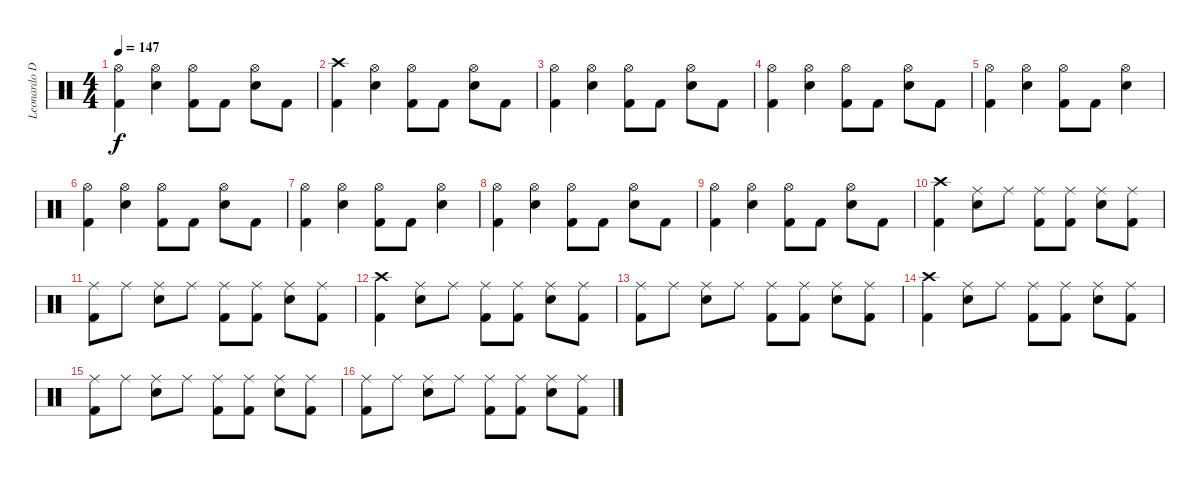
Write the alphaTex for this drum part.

\track ("Leonardo De Cecco" "Leonardo D") {instrument percussion}
\staff {score}
\articulation defaults
\ts (4 4)
\tempo 147
\clef neutral
\ks c
("Hi-Hat (open)" "Kick (hit) 2").4{dy f} ("Hi-Hat (open)" "Electric Snare (hit)").4 ("Hi-Hat (open)" "Kick (hit) 2").8 "Kick (hit) 2".8 ("Hi-Hat (open)" "Electric Snare (hit)").8 "Kick (hit) 2".8 |
("Crash high (hit)" "Kick (hit) 2").4 ("Hi-Hat (open)" "Electric Snare (hit)").4 ("Hi-Hat (open)" "Kick (hit) 2").8 "Kick (hit) 2".8 ("Hi-Hat (open)" "Electric Snare (hit)").8 "Kick (hit) 2".8 |
("Hi-Hat (open)" "Kick (hit) 2").4 ("Hi-Hat (open)" "Electric Snare (hit)").4 ("Hi-Hat (open)" "Kick (hit) 2").8 "Kick (hit) 2".8 ("Hi-Hat (open)" "Electric Snare (hit)").8 "Kick (hit) 2".8 |
("Hi-Hat (open)" "Kick (hit) 2").4 ("Hi-Hat (open)" "Electric Snare (hit)").4 ("Hi-Hat (open)" "Kick (hit) 2").8 "Kick (hit) 2".8 ("Hi-Hat (open)" "Electric Snare (hit)").8 "Kick (hit) 2".8 |
("Hi-Hat (open)" "Kick (hit) 2").4 ("Hi-Hat (open)" "Electric Snare (hit)").4 ("Hi-Hat (open)" "Kick (hit) 2").8 "Kick (hit) 2".8 ("Hi-Hat (open)" "Electric Snare (hit)").4 |
("Hi-Hat (open)" "Kick (hit) 2").4 ("Hi-Hat (open)" "Electric Snare (hit)").4 ("Hi-Hat (open)" "Kick (hit) 2").8 "Kick (hit) 2".8 ("Hi-Hat (open)" "Electric Snare (hit)").8 "Kick (hit) 2".8 |
("Hi-Hat (open)" "Kick (hit) 2").4 ("Hi-Hat (open)" "Electric Snare (hit)").4 ("Hi-Hat (open)" "Kick (hit) 2").8 "Kick (hit) 2".8 ("Hi-Hat (open)" "Electric Snare (hit)").4 |
("Hi-Hat (open)" "Kick (hit) 2").4 ("Hi-Hat (open)" "Electric Snare (hit)").4 ("Hi-Hat (open)" "Kick (hit) 2").8 "Kick (hit) 2".8 ("Hi-Hat (open)" "Electric Snare (hit)").8 "Kick (hit) 2".8 |
("Hi-Hat (open)" "Kick (hit) 2").4 ("Hi-Hat (open)" "Electric Snare (hit)").4 ("Hi-Hat (open)" "Kick (hit) 2").8 "Kick (hit) 2".8 ("Hi-Hat (open)" "Electric Snare (hit)").8 "Kick (hit) 2".8 |
("Crash high (hit)" "Kick (hit) 2").4 ("Ride (middle)" "Electric Snare (hit)").8 "Ride (middle)".8 ("Ride (middle)" "Kick (hit) 2").8 ("Ride (middle)" "Kick (hit) 2").8 ("Ride (middle)" "Electric Snare (hit)").8 ("Ride (middle)" "Kick (hit) 2").8 |
("Ride (middle)" "Kick (hit) 2").8 "Ride (middle)".8 ("Ride (middle)" "Electric Snare (hit)").8 "Ride (middle)".8 ("Ride (middle)" "Kick (hit) 2").8 ("Ride (middle)" "Kick (hit) 2").8 ("Ride (middle)" "Electric Snare (hit)").8 ("Ride (middle)" "Kick (hit) 2").8 |
("Crash high (hit)" "Kick (hit) 2").4 ("Ride (middle)" "Electric Snare (hit)").8 "Ride (middle)".8 ("Ride (middle)" "Kick (hit) 2").8 ("Ride (middle)" "Kick (hit) 2").8 ("Ride (middle)" "Electric Snare (hit)").8 ("Ride (middle)" "Kick (hit) 2").8 |
("Ride (middle)" "Kick (hit) 2").8 "Ride (middle)".8 ("Ride (middle)" "Electric Snare (hit)").8 "Ride (middle)".8 ("Ride (middle)" "Kick (hit) 2").8 ("Ride (middle)" "Kick (hit) 2").8 ("Ride (middle)" "Electric Snare (hit)").8 ("Ride (middle)" "Kick (hit) 2").8 |
("Crash high (hit)" "Kick (hit) 2").4 ("Ride (middle)" "Electric Snare (hit)").8 "Ride (middle)".8 ("Ride (middle)" "Kick (hit) 2").8 ("Ride (middle)" "Kick (hit) 2").8 ("Ride (middle)" "Electric Snare (hit)").8 ("Ride (middle)" "Kick (hit) 2").8 |
("Ride (middle)" "Kick (hit) 2").8 "Ride (middle)".8 ("Ride (middle)" "Electric Snare (hit)").8 "Ride (middle)".8 ("Ride (middle)" "Kick (hit) 2").8 ("Ride (middle)" "Kick (hit) 2").8 ("Ride (middle)" "Electric Snare (hit)").8 ("Ride (middle)" "Kick (hit) 2").8 |
("Ride (middle)" "Kick (hit) 2").8 "Ride (middle)".8 ("Ride (middle)" "Electric Snare (hit)").8 "Ride (middle)".8 ("Ride (middle)" "Kick (hit) 2").8 ("Ride (middle)" "Kick (hit) 2").8 ("Ride (middle)" "Electric Snare (hit)").8 ("Ride (middle)" "Kick (hit) 2").8
